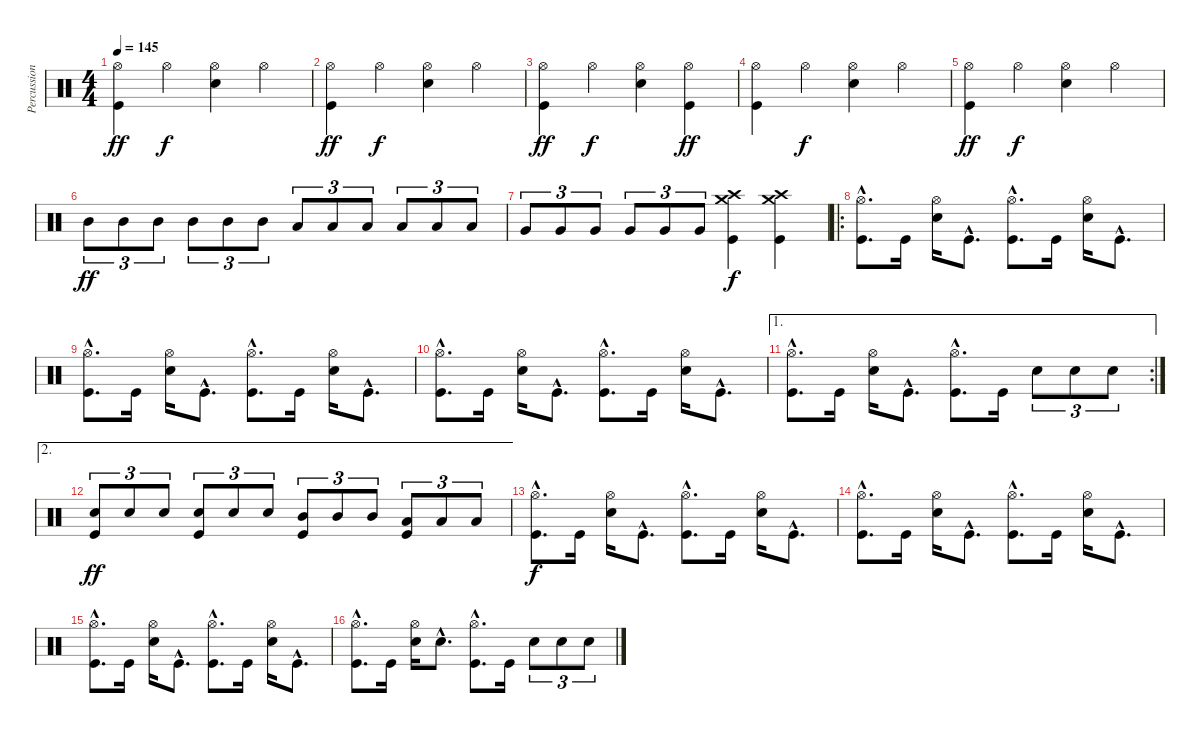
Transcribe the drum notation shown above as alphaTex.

\track ("Percussions" "Percussion") {instrument percussion}
\staff {score}
\articulation defaults
\ts (4 4)
\tempo 145
\clef neutral
\ks c
("Hi-Hat (open)" "Kick (hit)").4{dy ff} "Hi-Hat (open)".4{dy f} ("Hi-Hat (open)" "Snare (hit) 2").4 "Hi-Hat (open)".4 |
("Hi-Hat (open)" "Kick (hit)").4{dy ff} "Hi-Hat (open)".4{dy f} ("Hi-Hat (open)" "Snare (hit) 2").4 "Hi-Hat (open)".4 |
("Hi-Hat (open)" "Kick (hit)").4{dy ff} "Hi-Hat (open)".4{dy f} ("Hi-Hat (open)" "Snare (hit) 2").4 ("Hi-Hat (open)" "Kick (hit)").4{dy ff} |
("Hi-Hat (open)" "Kick (hit)").4 "Hi-Hat (open)".4{dy f} ("Hi-Hat (open)" "Snare (hit) 2").4 "Hi-Hat (open)".4 |
("Hi-Hat (open)" "Kick (hit)").4{dy ff} "Hi-Hat (open)".4{dy f} ("Hi-Hat (open)" "Snare (hit) 2").4 "Hi-Hat (open)".4 |
"Mid Tom (hit)".8{tu (3 2) dy ff} "Mid Tom (hit)".8{tu (3 2)} "Mid Tom (hit)".8{tu (3 2)} "Mid Tom (hit)".8{tu (3 2)} "Mid Tom (hit)".8{tu (3 2)} "Mid Tom (hit)".8{tu (3 2)} "Low Tom (hit)".8{tu (3 2)} "Low Tom (hit)".8{tu (3 2)} "Low Tom (hit)".8{tu (3 2)} "Low Tom (hit)".8{tu (3 2)} "Low Tom (hit)".8{tu (3 2)} "Low Tom (hit)".8{tu (3 2)} |
"Very Low Tom (hit)".8{tu (3 2)} "Very Low Tom (hit)".8{tu (3 2)} "Very Low Tom (hit)".8{tu (3 2)} "Very Low Tom (hit)".8{tu (3 2)} "Very Low Tom (hit)".8{tu (3 2)} "Very Low Tom (hit)".8{tu (3 2)} ("Crash medium (hit)" "Crash high (hit)" "Kick (hit)").4{dy f} ("Crash medium (hit)" "Crash high (hit)" "Kick (hit)").4 |
\ro
("Hi-Hat (open)"{hac} "Kick (hit)"{hac}).8{d} "Kick (hit)".16 ("Hi-Hat (open)" "Snare (hit) 2").16 "Kick (hit)"{hac}.8{d} ("Hi-Hat (open)"{hac} "Kick (hit)"{hac}).8{d} "Kick (hit)".16 ("Hi-Hat (open)" "Snare (hit) 2").16 "Kick (hit)"{hac}.8{d} |
("Hi-Hat (open)"{hac} "Kick (hit)"{hac}).8{d} "Kick (hit)".16 ("Hi-Hat (open)" "Snare (hit) 2").16 "Kick (hit)"{hac}.8{d} ("Hi-Hat (open)"{hac} "Kick (hit)"{hac}).8{d} "Kick (hit)".16 ("Hi-Hat (open)" "Snare (hit) 2").16 "Kick (hit)"{hac}.8{d} |
("Hi-Hat (open)"{hac} "Kick (hit)"{hac}).8{d} "Kick (hit)".16 ("Hi-Hat (open)" "Snare (hit) 2").16 "Kick (hit)"{hac}.8{d} ("Hi-Hat (open)"{hac} "Kick (hit)"{hac}).8{d} "Kick (hit)".16 ("Hi-Hat (open)" "Snare (hit) 2").16 "Kick (hit)"{hac}.8{d} |
\ae 1
\rc 2
("Hi-Hat (open)"{hac} "Kick (hit)"{hac}).8{d} "Kick (hit)".16 ("Hi-Hat (open)" "Snare (hit) 2").16 "Kick (hit)"{hac}.8{d} ("Hi-Hat (open)"{hac} "Kick (hit)"{hac}).8{d} "Kick (hit)".16 "Snare (hit) 2".8{tu (3 2)} "Snare (hit) 2".8{tu (3 2)} "Snare (hit) 2".8{tu (3 2)} |
\ae 2
("Snare (hit) 2" "Kick (hit)").8{tu (3 2) dy ff} "Snare (hit) 2".8{tu (3 2)} "Snare (hit) 2".8{tu (3 2)} ("Snare (hit) 2" "Kick (hit)").8{tu (3 2)} "Snare (hit) 2".8{tu (3 2)} "Snare (hit) 2".8{tu (3 2)} ("Mid Tom (hit)" "Kick (hit)").8{tu (3 2)} "Mid Tom (hit)".8{tu (3 2)} "Mid Tom (hit)".8{tu (3 2)} ("Low Tom (hit)" "Kick (hit)").8{tu (3 2)} "Low Tom (hit)".8{tu (3 2)} "Low Tom (hit)".8{tu (3 2)} |
("Hi-Hat (open)"{hac} "Kick (hit)"{hac}).8{d dy f} "Kick (hit)".16 ("Hi-Hat (open)" "Snare (hit) 2").16 "Kick (hit)"{hac}.8{d} ("Hi-Hat (open)"{hac} "Kick (hit)"{hac}).8{d} "Kick (hit)".16 ("Hi-Hat (open)" "Snare (hit) 2").16 "Kick (hit)"{hac}.8{d} |
("Hi-Hat (open)"{hac} "Kick (hit)"{hac}).8{d} "Kick (hit)".16 ("Hi-Hat (open)" "Snare (hit) 2").16 "Kick (hit)"{hac}.8{d} ("Hi-Hat (open)"{hac} "Kick (hit)"{hac}).8{d} "Kick (hit)".16 ("Hi-Hat (open)" "Snare (hit) 2").16 "Kick (hit)"{hac}.8{d} |
("Hi-Hat (open)"{hac} "Kick (hit)"{hac}).8{d} "Kick (hit)".16 ("Hi-Hat (open)" "Snare (hit) 2").16 "Kick (hit)"{hac}.8{d} ("Hi-Hat (open)"{hac} "Kick (hit)"{hac}).8{d} "Kick (hit)".16 ("Hi-Hat (open)" "Snare (hit) 2").16 "Kick (hit)"{hac}.8{d} |
("Hi-Hat (open)"{hac} "Kick (hit)"{hac}).8{d} "Kick (hit)".16 ("Hi-Hat (open)" "Snare (hit) 2").16 "Snare (hit) 2"{hac}.8{d} ("Hi-Hat (open)"{hac} "Kick (hit)"{hac}).8{d} "Kick (hit)".16 "Snare (hit) 2".8{tu (3 2)} "Snare (hit) 2".8{tu (3 2)} "Snare (hit) 2".8{tu (3 2)}
